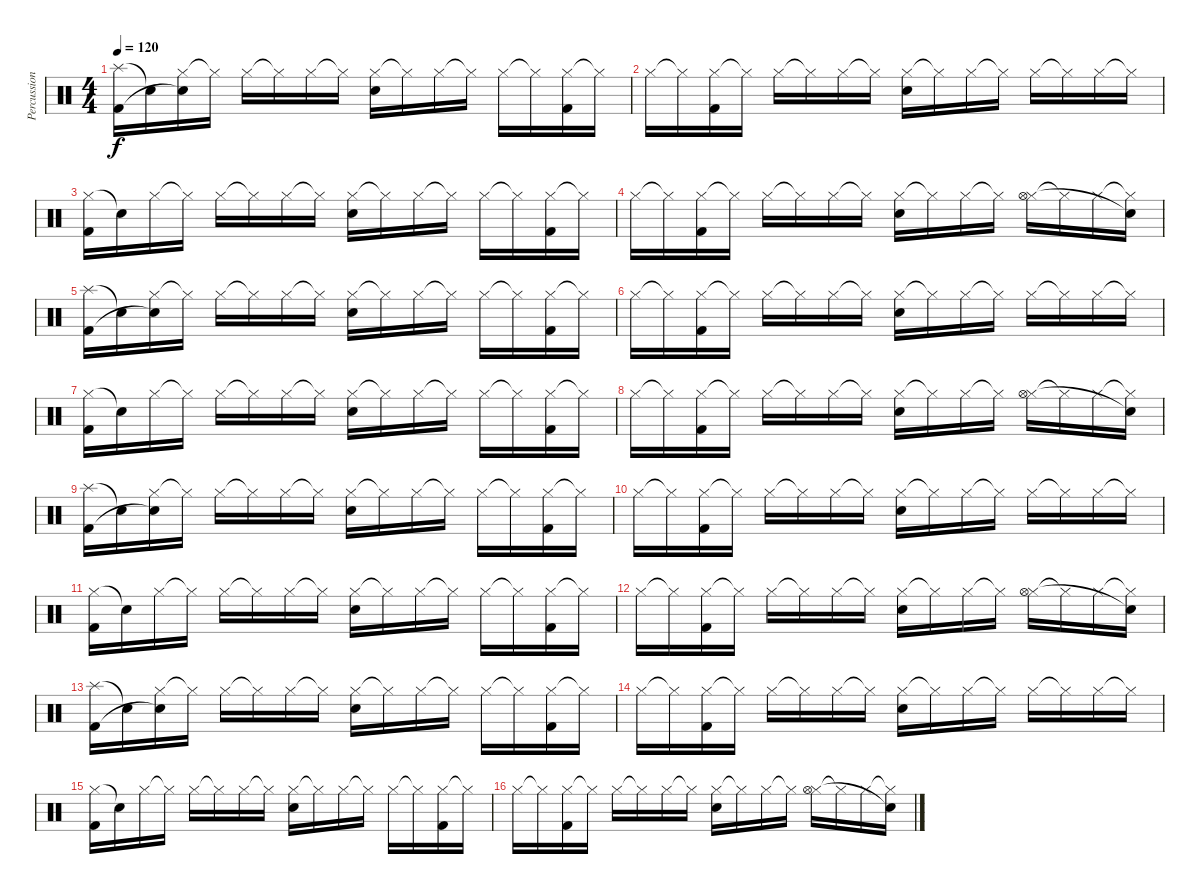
\track ("Percussion" "Percussion") {instrument percussion}
\staff {score}
\articulation defaults
\ts (4 4)
\tempo 120
\clef neutral
\ks c
("Splash (hit)" "Kick (hit) 2").16{dy f} "Snare (hit)"{t}.16 ("Hi-Hat (closed)" "Snare (hit)"{t}).16 "Hi-Hat (closed)"{t}.16 "Hi-Hat (closed)".16 "Hi-Hat (closed)"{t}.16 "Hi-Hat (closed)".16 "Hi-Hat (closed)"{t}.16 ("Hi-Hat (closed)" "Snare (hit) 2").16 "Hi-Hat (closed)"{t}.16 "Hi-Hat (closed)".16 "Hi-Hat (closed)"{t}.16 "Hi-Hat (closed)".16 "Hi-Hat (closed)"{t}.16 ("Hi-Hat (closed)" "Kick (hit) 2").16 "Hi-Hat (closed)"{t}.16 |
"Hi-Hat (closed)".16 "Hi-Hat (closed)"{t}.16 ("Hi-Hat (closed)" "Kick (hit) 2").16 "Hi-Hat (closed)"{t}.16 "Hi-Hat (closed)".16 "Hi-Hat (closed)"{t}.16 "Hi-Hat (closed)".16 "Hi-Hat (closed)"{t}.16 ("Hi-Hat (closed)" "Snare (hit) 2").16 "Hi-Hat (closed)"{t}.16 "Hi-Hat (closed)".16 "Hi-Hat (closed)"{t}.16 "Hi-Hat (closed)".16 "Hi-Hat (closed)"{t}.16 "Hi-Hat (closed)".16 "Hi-Hat (closed)"{t}.16 |
("Hi-Hat (closed)" "Kick (hit) 2").16 "Snare (hit)"{t}.16 "Hi-Hat (closed)".16 "Hi-Hat (closed)"{t}.16 "Hi-Hat (closed)".16 "Hi-Hat (closed)"{t}.16 "Hi-Hat (closed)".16 "Hi-Hat (closed)"{t}.16 ("Hi-Hat (closed)" "Snare (hit) 2").16 "Hi-Hat (closed)"{t}.16 "Hi-Hat (closed)".16 "Hi-Hat (closed)"{t}.16 "Hi-Hat (closed)".16 "Hi-Hat (closed)"{t}.16 ("Hi-Hat (closed)" "Kick (hit) 2").16 "Hi-Hat (closed)"{t}.16 |
"Hi-Hat (closed)".16 "Hi-Hat (closed)"{t}.16 ("Hi-Hat (closed)" "Kick (hit) 2").16 "Hi-Hat (closed)"{t}.16 "Hi-Hat (closed)".16 "Hi-Hat (closed)"{t}.16 "Hi-Hat (closed)".16 "Hi-Hat (closed)"{t}.16 ("Hi-Hat (closed)" "Snare (hit) 2").16 "Hi-Hat (closed)"{t}.16 "Hi-Hat (closed)".16 "Hi-Hat (closed)"{t}.16 ("Hi-Hat (closed)" "Hi-Hat (open)").16 "Hi-Hat (closed)"{t}.16 "Hi-Hat (closed)".16 ("Hi-Hat (closed)"{t} "Snare (hit)"{t}).16 |
("Splash (hit)" "Kick (hit) 2").16 "Snare (hit)"{t}.16 ("Hi-Hat (closed)" "Snare (hit)"{t}).16 "Hi-Hat (closed)"{t}.16 "Hi-Hat (closed)".16 "Hi-Hat (closed)"{t}.16 "Hi-Hat (closed)".16 "Hi-Hat (closed)"{t}.16 ("Hi-Hat (closed)" "Snare (hit) 2").16 "Hi-Hat (closed)"{t}.16 "Hi-Hat (closed)".16 "Hi-Hat (closed)"{t}.16 "Hi-Hat (closed)".16 "Hi-Hat (closed)"{t}.16 ("Hi-Hat (closed)" "Kick (hit) 2").16 "Hi-Hat (closed)"{t}.16 |
"Hi-Hat (closed)".16 "Hi-Hat (closed)"{t}.16 ("Hi-Hat (closed)" "Kick (hit) 2").16 "Hi-Hat (closed)"{t}.16 "Hi-Hat (closed)".16 "Hi-Hat (closed)"{t}.16 "Hi-Hat (closed)".16 "Hi-Hat (closed)"{t}.16 ("Hi-Hat (closed)" "Snare (hit) 2").16 "Hi-Hat (closed)"{t}.16 "Hi-Hat (closed)".16 "Hi-Hat (closed)"{t}.16 "Hi-Hat (closed)".16 "Hi-Hat (closed)"{t}.16 "Hi-Hat (closed)".16 "Hi-Hat (closed)"{t}.16 |
("Hi-Hat (closed)" "Kick (hit) 2").16 "Snare (hit)"{t}.16 "Hi-Hat (closed)".16 "Hi-Hat (closed)"{t}.16 "Hi-Hat (closed)".16 "Hi-Hat (closed)"{t}.16 "Hi-Hat (closed)".16 "Hi-Hat (closed)"{t}.16 ("Hi-Hat (closed)" "Snare (hit) 2").16 "Hi-Hat (closed)"{t}.16 "Hi-Hat (closed)".16 "Hi-Hat (closed)"{t}.16 "Hi-Hat (closed)".16 "Hi-Hat (closed)"{t}.16 ("Hi-Hat (closed)" "Kick (hit) 2").16 "Hi-Hat (closed)"{t}.16 |
"Hi-Hat (closed)".16 "Hi-Hat (closed)"{t}.16 ("Hi-Hat (closed)" "Kick (hit) 2").16 "Hi-Hat (closed)"{t}.16 "Hi-Hat (closed)".16 "Hi-Hat (closed)"{t}.16 "Hi-Hat (closed)".16 "Hi-Hat (closed)"{t}.16 ("Hi-Hat (closed)" "Snare (hit) 2").16 "Hi-Hat (closed)"{t}.16 "Hi-Hat (closed)".16 "Hi-Hat (closed)"{t}.16 ("Hi-Hat (closed)" "Hi-Hat (open)").16 "Hi-Hat (closed)"{t}.16 "Hi-Hat (closed)".16 ("Hi-Hat (closed)"{t} "Snare (hit)"{t}).16 |
("Splash (hit)" "Kick (hit) 2").16 "Snare (hit)"{t}.16 ("Hi-Hat (closed)" "Snare (hit)"{t}).16 "Hi-Hat (closed)"{t}.16 "Hi-Hat (closed)".16 "Hi-Hat (closed)"{t}.16 "Hi-Hat (closed)".16 "Hi-Hat (closed)"{t}.16 ("Hi-Hat (closed)" "Snare (hit) 2").16 "Hi-Hat (closed)"{t}.16 "Hi-Hat (closed)".16 "Hi-Hat (closed)"{t}.16 "Hi-Hat (closed)".16 "Hi-Hat (closed)"{t}.16 ("Hi-Hat (closed)" "Kick (hit) 2").16 "Hi-Hat (closed)"{t}.16 |
"Hi-Hat (closed)".16 "Hi-Hat (closed)"{t}.16 ("Hi-Hat (closed)" "Kick (hit) 2").16 "Hi-Hat (closed)"{t}.16 "Hi-Hat (closed)".16 "Hi-Hat (closed)"{t}.16 "Hi-Hat (closed)".16 "Hi-Hat (closed)"{t}.16 ("Hi-Hat (closed)" "Snare (hit) 2").16 "Hi-Hat (closed)"{t}.16 "Hi-Hat (closed)".16 "Hi-Hat (closed)"{t}.16 "Hi-Hat (closed)".16 "Hi-Hat (closed)"{t}.16 "Hi-Hat (closed)".16 "Hi-Hat (closed)"{t}.16 |
("Hi-Hat (closed)" "Kick (hit) 2").16 "Snare (hit)"{t}.16 "Hi-Hat (closed)".16 "Hi-Hat (closed)"{t}.16 "Hi-Hat (closed)".16 "Hi-Hat (closed)"{t}.16 "Hi-Hat (closed)".16 "Hi-Hat (closed)"{t}.16 ("Hi-Hat (closed)" "Snare (hit) 2").16 "Hi-Hat (closed)"{t}.16 "Hi-Hat (closed)".16 "Hi-Hat (closed)"{t}.16 "Hi-Hat (closed)".16 "Hi-Hat (closed)"{t}.16 ("Hi-Hat (closed)" "Kick (hit) 2").16 "Hi-Hat (closed)"{t}.16 |
"Hi-Hat (closed)".16 "Hi-Hat (closed)"{t}.16 ("Hi-Hat (closed)" "Kick (hit) 2").16 "Hi-Hat (closed)"{t}.16 "Hi-Hat (closed)".16 "Hi-Hat (closed)"{t}.16 "Hi-Hat (closed)".16 "Hi-Hat (closed)"{t}.16 ("Hi-Hat (closed)" "Snare (hit) 2").16 "Hi-Hat (closed)"{t}.16 "Hi-Hat (closed)".16 "Hi-Hat (closed)"{t}.16 ("Hi-Hat (closed)" "Hi-Hat (open)").16 "Hi-Hat (closed)"{t}.16 "Hi-Hat (closed)".16 ("Hi-Hat (closed)"{t} "Snare (hit)"{t}).16 |
("Splash (hit)" "Kick (hit) 2").16 "Snare (hit)"{t}.16 ("Hi-Hat (closed)" "Snare (hit)"{t}).16 "Hi-Hat (closed)"{t}.16 "Hi-Hat (closed)".16 "Hi-Hat (closed)"{t}.16 "Hi-Hat (closed)".16 "Hi-Hat (closed)"{t}.16 ("Hi-Hat (closed)" "Snare (hit) 2").16 "Hi-Hat (closed)"{t}.16 "Hi-Hat (closed)".16 "Hi-Hat (closed)"{t}.16 "Hi-Hat (closed)".16 "Hi-Hat (closed)"{t}.16 ("Hi-Hat (closed)" "Kick (hit) 2").16 "Hi-Hat (closed)"{t}.16 |
"Hi-Hat (closed)".16 "Hi-Hat (closed)"{t}.16 ("Hi-Hat (closed)" "Kick (hit) 2").16 "Hi-Hat (closed)"{t}.16 "Hi-Hat (closed)".16 "Hi-Hat (closed)"{t}.16 "Hi-Hat (closed)".16 "Hi-Hat (closed)"{t}.16 ("Hi-Hat (closed)" "Snare (hit) 2").16 "Hi-Hat (closed)"{t}.16 "Hi-Hat (closed)".16 "Hi-Hat (closed)"{t}.16 "Hi-Hat (closed)".16 "Hi-Hat (closed)"{t}.16 "Hi-Hat (closed)".16 "Hi-Hat (closed)"{t}.16 |
("Hi-Hat (closed)" "Kick (hit) 2").16 "Snare (hit)"{t}.16 "Hi-Hat (closed)".16 "Hi-Hat (closed)"{t}.16 "Hi-Hat (closed)".16 "Hi-Hat (closed)"{t}.16 "Hi-Hat (closed)".16 "Hi-Hat (closed)"{t}.16 ("Hi-Hat (closed)" "Snare (hit) 2").16 "Hi-Hat (closed)"{t}.16 "Hi-Hat (closed)".16 "Hi-Hat (closed)"{t}.16 "Hi-Hat (closed)".16 "Hi-Hat (closed)"{t}.16 ("Hi-Hat (closed)" "Kick (hit) 2").16 "Hi-Hat (closed)"{t}.16 |
"Hi-Hat (closed)".16 "Hi-Hat (closed)"{t}.16 ("Hi-Hat (closed)" "Kick (hit) 2").16 "Hi-Hat (closed)"{t}.16 "Hi-Hat (closed)".16 "Hi-Hat (closed)"{t}.16 "Hi-Hat (closed)".16 "Hi-Hat (closed)"{t}.16 ("Hi-Hat (closed)" "Snare (hit) 2").16 "Hi-Hat (closed)"{t}.16 "Hi-Hat (closed)".16 "Hi-Hat (closed)"{t}.16 ("Hi-Hat (closed)" "Hi-Hat (open)").16 "Hi-Hat (closed)"{t}.16 "Hi-Hat (closed)".16 ("Hi-Hat (closed)"{t} "Snare (hit)"{t}).16
